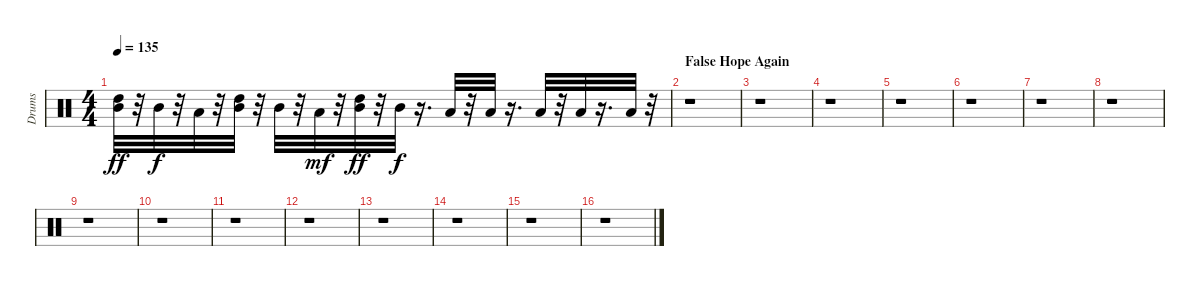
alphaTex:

\track ("Drums" "Drums") {instrument percussion}
\staff {score}
\articulation defaults
\ts (4 4)
\tempo 135
\clef neutral
\ks c
("High Tom (hit)" "Mid Tom (hit)").32{dy ff} r.32 "Mid Tom (hit)".32{dy f} r.32 "Low Tom (hit)".32 r.32 ("High Tom (hit)" "Mid Tom (hit)").32 r.32 "Mid Tom (hit)".32 r.32 "Low Tom (hit)".32{dy mf} r.32 ("High Tom (hit)" "Mid Tom (hit)").32{dy ff} r.32 "Mid Tom (hit)".32{dy f} r.16{d} "Low Tom (hit)".32 r.32 "Low Tom (hit)".32 r.16{d} "Low Tom (hit)".32 r.32 "Low Tom (hit)".32 r.16{d} "Low Tom (hit)".32 r.32 |
\section ("" "False Hope Again")
r.1 |
r.1 |
r.1 |
r.1 |
r.1 |
r.1 |
r.1 |
r.1 |
r.1 |
r.1 |
r.1 |
r.1 |
r.1 |
r.1 |
r.1
